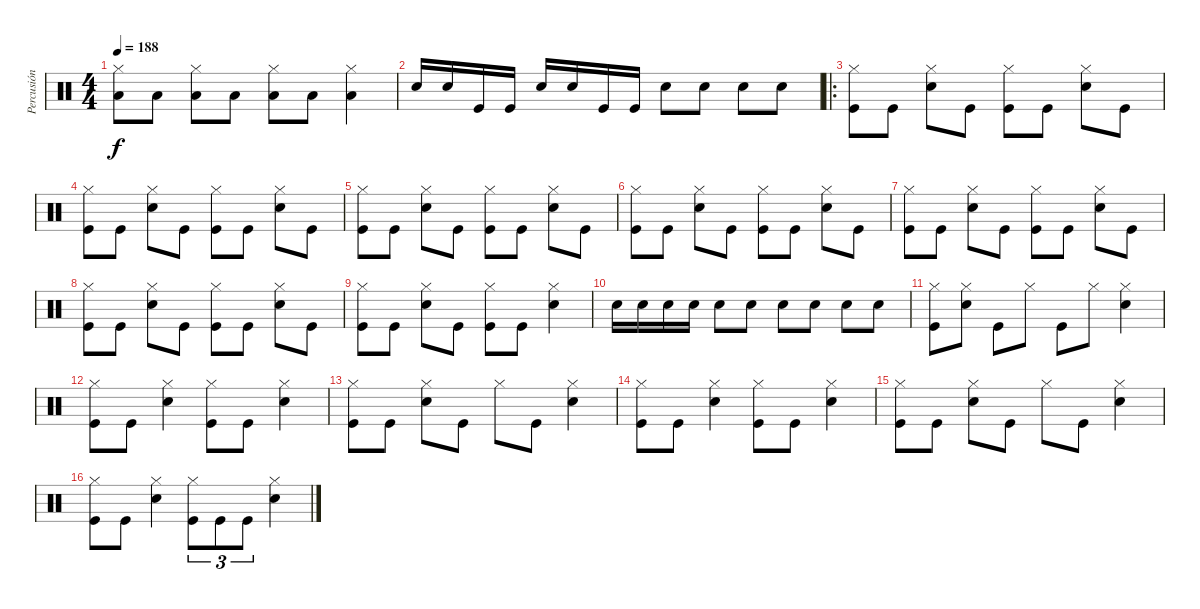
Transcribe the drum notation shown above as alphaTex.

\track ("Percusión" "Percusión") {instrument percussion}
\staff {score}
\articulation defaults
\ts (4 4)
\tempo 188
\clef neutral
\ks c
("Hi-Hat (closed)" "Low Tom (hit)").8{dy f} "Low Tom (hit)".8 ("Hi-Hat (closed)" "Low Tom (hit)").8 "Low Tom (hit)".8 ("Hi-Hat (closed)" "Low Tom (hit)").8 "Low Tom (hit)".8 ("Hi-Hat (closed)" "Low Tom (hit)").4 |
"Snare (hit) 2".16 "Snare (hit) 2".16 "Kick (hit)".16 "Kick (hit)".16 "Snare (hit) 2".16 "Snare (hit) 2".16 "Kick (hit)".16 "Kick (hit)".16 "Snare (hit) 2".8 "Snare (hit) 2".8 "Snare (hit) 2".8 "Snare (hit) 2".8 |
\ro
("Hi-Hat (closed)" "Kick (hit)").8 "Kick (hit)".8 ("Hi-Hat (closed)" "Snare (hit) 2").8 "Kick (hit)".8 ("Hi-Hat (closed)" "Kick (hit)").8 "Kick (hit)".8 ("Hi-Hat (closed)" "Snare (hit) 2").8 "Kick (hit)".8 |
("Hi-Hat (closed)" "Kick (hit)").8 "Kick (hit)".8 ("Hi-Hat (closed)" "Snare (hit) 2").8 "Kick (hit)".8 ("Hi-Hat (closed)" "Kick (hit)").8 "Kick (hit)".8 ("Hi-Hat (closed)" "Snare (hit) 2").8 "Kick (hit)".8 |
("Hi-Hat (closed)" "Kick (hit)").8 "Kick (hit)".8 ("Hi-Hat (closed)" "Snare (hit) 2").8 "Kick (hit)".8 ("Hi-Hat (closed)" "Kick (hit)").8 "Kick (hit)".8 ("Hi-Hat (closed)" "Snare (hit) 2").8 "Kick (hit)".8 |
("Hi-Hat (closed)" "Kick (hit)").8 "Kick (hit)".8 ("Hi-Hat (closed)" "Snare (hit) 2").8 "Kick (hit)".8 ("Hi-Hat (closed)" "Kick (hit)").8 "Kick (hit)".8 ("Hi-Hat (closed)" "Snare (hit) 2").8 "Kick (hit)".8 |
("Hi-Hat (closed)" "Kick (hit)").8 "Kick (hit)".8 ("Hi-Hat (closed)" "Snare (hit) 2").8 "Kick (hit)".8 ("Hi-Hat (closed)" "Kick (hit)").8 "Kick (hit)".8 ("Hi-Hat (closed)" "Snare (hit) 2").8 "Kick (hit)".8 |
("Hi-Hat (closed)" "Kick (hit)").8 "Kick (hit)".8 ("Hi-Hat (closed)" "Snare (hit) 2").8 "Kick (hit)".8 ("Hi-Hat (closed)" "Kick (hit)").8 "Kick (hit)".8 ("Hi-Hat (closed)" "Snare (hit) 2").8 "Kick (hit)".8 |
("Hi-Hat (closed)" "Kick (hit)").8 "Kick (hit)".8 ("Hi-Hat (closed)" "Snare (hit) 2").8 "Kick (hit)".8 ("Hi-Hat (closed)" "Kick (hit)").8 "Kick (hit)".8 ("Hi-Hat (closed)" "Snare (hit) 2").4 |
"Snare (hit) 2".16 "Snare (hit) 2".16 "Snare (hit) 2".16 "Snare (hit) 2".16 "Snare (hit) 2".8 "Snare (hit) 2".8 "Snare (hit) 2".8 "Snare (hit) 2".8 "Snare (hit) 2".8 "Snare (hit) 2".8 |
("Hi-Hat (closed)" "Kick (hit)").8 ("Hi-Hat (closed)" "Snare (hit) 2").8 "Kick (hit)".8 "Hi-Hat (closed)".8 "Kick (hit)".8 "Hi-Hat (closed)".8 ("Hi-Hat (closed)" "Snare (hit) 2").4 |
("Hi-Hat (closed)" "Kick (hit)").8 "Kick (hit)".8 ("Hi-Hat (closed)" "Snare (hit) 2").4 ("Hi-Hat (closed)" "Kick (hit)").8 "Kick (hit)".8 ("Hi-Hat (closed)" "Snare (hit) 2").4 |
("Hi-Hat (closed)" "Kick (hit)").8 "Kick (hit)".8 ("Hi-Hat (closed)" "Snare (hit) 2").8 "Kick (hit)".8 "Hi-Hat (closed)".8 "Kick (hit)".8 ("Hi-Hat (closed)" "Snare (hit) 2").4 |
("Hi-Hat (closed)" "Kick (hit)").8 "Kick (hit)".8 ("Hi-Hat (closed)" "Snare (hit) 2").4 ("Hi-Hat (closed)" "Kick (hit)").8 "Kick (hit)".8 ("Hi-Hat (closed)" "Snare (hit) 2").4 |
("Hi-Hat (closed)" "Kick (hit)").8 "Kick (hit)".8 ("Hi-Hat (closed)" "Snare (hit) 2").8 "Kick (hit)".8 "Hi-Hat (closed)".8 "Kick (hit)".8 ("Hi-Hat (closed)" "Snare (hit) 2").4 |
("Hi-Hat (closed)" "Kick (hit)").8 "Kick (hit)".8 ("Hi-Hat (closed)" "Snare (hit) 2").4 ("Hi-Hat (closed)" "Kick (hit)").8{tu (3 2)} "Kick (hit)".8{tu (3 2)} "Kick (hit)".8{tu (3 2)} ("Hi-Hat (closed)" "Snare (hit) 2").4
